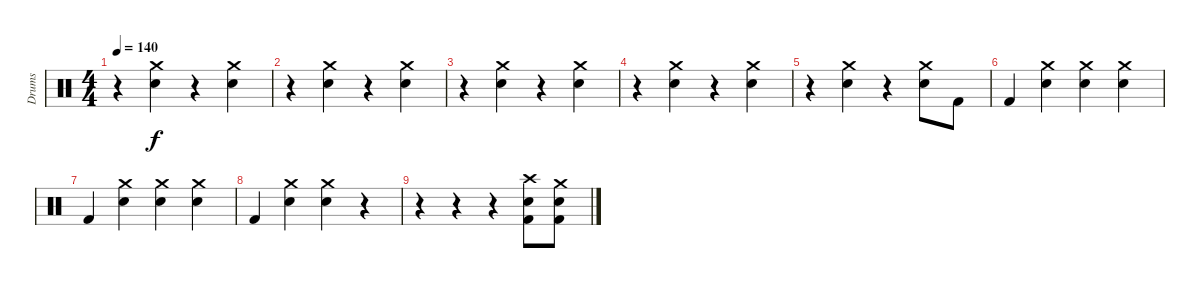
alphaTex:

\track ("Drums" "Drums") {instrument percussion}
\staff {score}
\articulation defaults
\ts (4 4)
\tempo 140
\clef neutral
\ks c
r.4{dy f} ("Snare (hit) 2" "Crash medium (hit)").4 r.4 ("Snare (hit) 2" "Crash medium (hit)").4 |
r.4 ("Snare (hit) 2" "Crash medium (hit)").4 r.4 ("Snare (hit) 2" "Crash medium (hit)").4 |
r.4 ("Snare (hit) 2" "Crash medium (hit)").4 r.4 ("Snare (hit) 2" "Crash medium (hit)").4 |
r.4 ("Snare (hit) 2" "Crash medium (hit)").4 r.4 ("Snare (hit) 2" "Crash medium (hit)").4 |
r.4 ("Snare (hit) 2" "Crash medium (hit)").4 r.4 ("Snare (hit) 2" "Crash medium (hit)").8 "Kick (hit) 2".8 |
"Kick (hit) 2".4 ("Snare (hit) 2" "Crash medium (hit)").4 ("Snare (hit) 2" "Crash medium (hit)").4 ("Snare (hit) 2" "Crash medium (hit)").4 |
"Kick (hit) 2".4 ("Snare (hit) 2" "Crash medium (hit)").4 ("Snare (hit) 2" "Crash medium (hit)").4 ("Snare (hit) 2" "Crash medium (hit)").4 |
"Kick (hit) 2".4 ("Snare (hit) 2" "Crash medium (hit)").4 ("Snare (hit) 2" "Crash medium (hit)").4 r.4 |
r.4 r.4 r.4 ("Kick (hit) 2" "Crash high (hit)" "Snare (hit) 2").8 ("Kick (hit) 2" "Crash medium (hit)" "Snare (hit) 2").8
